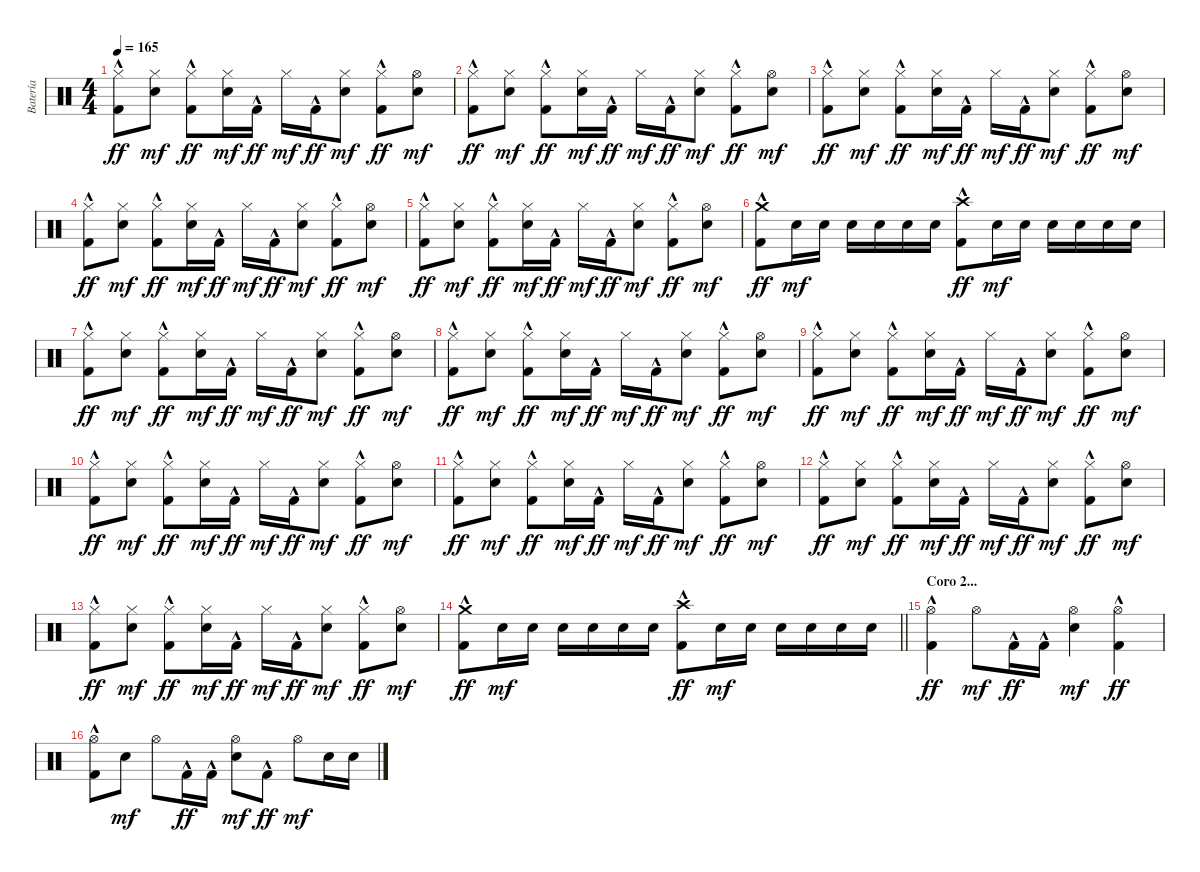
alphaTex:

\track ("Batería" "Batería") {instrument percussion}
\staff {score}
\articulation defaults
\ts (4 4)
\tempo 165
\clef neutral
\ks c
("Hi-Hat (closed)" "Kick (hit) 2"{hac}).8{dy ff} ("Hi-Hat (closed)" "Snare (hit) 2").8{dy mf} ("Hi-Hat (closed)" "Kick (hit) 2"{hac}).8{dy ff} ("Hi-Hat (closed)" "Snare (hit) 2").16{dy mf} "Kick (hit) 2"{hac}.16{dy ff} "Hi-Hat (closed)".16{dy mf} "Kick (hit) 2"{hac}.16{dy ff} ("Hi-Hat (closed)" "Snare (hit) 2").8{dy mf} ("Hi-Hat (closed)" "Kick (hit) 2"{hac}).8{dy ff} ("Hi-Hat (open)" "Snare (hit) 2").8{dy mf} |
("Hi-Hat (closed)" "Kick (hit) 2"{hac}).8{dy ff} ("Hi-Hat (closed)" "Snare (hit) 2").8{dy mf} ("Hi-Hat (closed)" "Kick (hit) 2"{hac}).8{dy ff} ("Hi-Hat (closed)" "Snare (hit) 2").16{dy mf} "Kick (hit) 2"{hac}.16{dy ff} "Hi-Hat (closed)".16{dy mf} "Kick (hit) 2"{hac}.16{dy ff} ("Hi-Hat (closed)" "Snare (hit) 2").8{dy mf} ("Hi-Hat (closed)" "Kick (hit) 2"{hac}).8{dy ff} ("Hi-Hat (open)" "Snare (hit) 2").8{dy mf} |
("Hi-Hat (closed)" "Kick (hit) 2"{hac}).8{dy ff} ("Hi-Hat (closed)" "Snare (hit) 2").8{dy mf} ("Hi-Hat (closed)" "Kick (hit) 2"{hac}).8{dy ff} ("Hi-Hat (closed)" "Snare (hit) 2").16{dy mf} "Kick (hit) 2"{hac}.16{dy ff} "Hi-Hat (closed)".16{dy mf} "Kick (hit) 2"{hac}.16{dy ff} ("Hi-Hat (closed)" "Snare (hit) 2").8{dy mf} ("Hi-Hat (closed)" "Kick (hit) 2"{hac}).8{dy ff} ("Hi-Hat (open)" "Snare (hit) 2").8{dy mf} |
("Hi-Hat (closed)" "Kick (hit) 2"{hac}).8{dy ff} ("Hi-Hat (closed)" "Snare (hit) 2").8{dy mf} ("Hi-Hat (closed)" "Kick (hit) 2"{hac}).8{dy ff} ("Hi-Hat (closed)" "Snare (hit) 2").16{dy mf} "Kick (hit) 2"{hac}.16{dy ff} "Hi-Hat (closed)".16{dy mf} "Kick (hit) 2"{hac}.16{dy ff} ("Hi-Hat (closed)" "Snare (hit) 2").8{dy mf} ("Hi-Hat (closed)" "Kick (hit) 2"{hac}).8{dy ff} ("Hi-Hat (open)" "Snare (hit) 2").8{dy mf} |
("Hi-Hat (closed)" "Kick (hit) 2"{hac}).8{dy ff} ("Hi-Hat (closed)" "Snare (hit) 2").8{dy mf} ("Hi-Hat (closed)" "Kick (hit) 2"{hac}).8{dy ff} ("Hi-Hat (closed)" "Snare (hit) 2").16{dy mf} "Kick (hit) 2"{hac}.16{dy ff} "Hi-Hat (closed)".16{dy mf} "Kick (hit) 2"{hac}.16{dy ff} ("Hi-Hat (closed)" "Snare (hit) 2").8{dy mf} ("Hi-Hat (closed)" "Kick (hit) 2"{hac}).8{dy ff} ("Hi-Hat (open)" "Snare (hit) 2").8{dy mf} |
("Crash medium (hit)" "Kick (hit) 2"{hac}).8{dy ff} "Snare (hit) 2".16{dy mf} "Snare (hit) 2".16 "Snare (hit) 2".16 "Snare (hit) 2".16 "Snare (hit) 2".16 "Snare (hit) 2".16 ("Crash high (hit)" "Kick (hit) 2"{hac}).8{dy ff} "Snare (hit) 2".16{dy mf} "Snare (hit) 2".16 "Snare (hit) 2".16 "Snare (hit) 2".16 "Snare (hit) 2".16 "Snare (hit) 2".16 |
("Hi-Hat (closed)" "Kick (hit) 2"{hac}).8{dy ff} ("Hi-Hat (closed)" "Snare (hit) 2").8{dy mf} ("Hi-Hat (closed)" "Kick (hit) 2"{hac}).8{dy ff} ("Hi-Hat (closed)" "Snare (hit) 2").16{dy mf} "Kick (hit) 2"{hac}.16{dy ff} "Hi-Hat (closed)".16{dy mf} "Kick (hit) 2"{hac}.16{dy ff} ("Hi-Hat (closed)" "Snare (hit) 2").8{dy mf} ("Hi-Hat (closed)" "Kick (hit) 2"{hac}).8{dy ff} ("Hi-Hat (open)" "Snare (hit) 2").8{dy mf} |
("Hi-Hat (closed)" "Kick (hit) 2"{hac}).8{dy ff} ("Hi-Hat (closed)" "Snare (hit) 2").8{dy mf} ("Hi-Hat (closed)" "Kick (hit) 2"{hac}).8{dy ff} ("Hi-Hat (closed)" "Snare (hit) 2").16{dy mf} "Kick (hit) 2"{hac}.16{dy ff} "Hi-Hat (closed)".16{dy mf} "Kick (hit) 2"{hac}.16{dy ff} ("Hi-Hat (closed)" "Snare (hit) 2").8{dy mf} ("Hi-Hat (closed)" "Kick (hit) 2"{hac}).8{dy ff} ("Hi-Hat (open)" "Snare (hit) 2").8{dy mf} |
("Hi-Hat (closed)" "Kick (hit) 2"{hac}).8{dy ff} ("Hi-Hat (closed)" "Snare (hit) 2").8{dy mf} ("Hi-Hat (closed)" "Kick (hit) 2"{hac}).8{dy ff} ("Hi-Hat (closed)" "Snare (hit) 2").16{dy mf} "Kick (hit) 2"{hac}.16{dy ff} "Hi-Hat (closed)".16{dy mf} "Kick (hit) 2"{hac}.16{dy ff} ("Hi-Hat (closed)" "Snare (hit) 2").8{dy mf} ("Hi-Hat (closed)" "Kick (hit) 2"{hac}).8{dy ff} ("Hi-Hat (open)" "Snare (hit) 2").8{dy mf} |
("Hi-Hat (closed)" "Kick (hit) 2"{hac}).8{dy ff} ("Hi-Hat (closed)" "Snare (hit) 2").8{dy mf} ("Hi-Hat (closed)" "Kick (hit) 2"{hac}).8{dy ff} ("Hi-Hat (closed)" "Snare (hit) 2").16{dy mf} "Kick (hit) 2"{hac}.16{dy ff} "Hi-Hat (closed)".16{dy mf} "Kick (hit) 2"{hac}.16{dy ff} ("Hi-Hat (closed)" "Snare (hit) 2").8{dy mf} ("Hi-Hat (closed)" "Kick (hit) 2"{hac}).8{dy ff} ("Hi-Hat (open)" "Snare (hit) 2").8{dy mf} |
("Hi-Hat (closed)" "Kick (hit) 2"{hac}).8{dy ff} ("Hi-Hat (closed)" "Snare (hit) 2").8{dy mf} ("Hi-Hat (closed)" "Kick (hit) 2"{hac}).8{dy ff} ("Hi-Hat (closed)" "Snare (hit) 2").16{dy mf} "Kick (hit) 2"{hac}.16{dy ff} "Hi-Hat (closed)".16{dy mf} "Kick (hit) 2"{hac}.16{dy ff} ("Hi-Hat (closed)" "Snare (hit) 2").8{dy mf} ("Hi-Hat (closed)" "Kick (hit) 2"{hac}).8{dy ff} ("Hi-Hat (open)" "Snare (hit) 2").8{dy mf} |
("Hi-Hat (closed)" "Kick (hit) 2"{hac}).8{dy ff} ("Hi-Hat (closed)" "Snare (hit) 2").8{dy mf} ("Hi-Hat (closed)" "Kick (hit) 2"{hac}).8{dy ff} ("Hi-Hat (closed)" "Snare (hit) 2").16{dy mf} "Kick (hit) 2"{hac}.16{dy ff} "Hi-Hat (closed)".16{dy mf} "Kick (hit) 2"{hac}.16{dy ff} ("Hi-Hat (closed)" "Snare (hit) 2").8{dy mf} ("Hi-Hat (closed)" "Kick (hit) 2"{hac}).8{dy ff} ("Hi-Hat (open)" "Snare (hit) 2").8{dy mf} |
("Hi-Hat (closed)" "Kick (hit) 2"{hac}).8{dy ff} ("Hi-Hat (closed)" "Snare (hit) 2").8{dy mf} ("Hi-Hat (closed)" "Kick (hit) 2"{hac}).8{dy ff} ("Hi-Hat (closed)" "Snare (hit) 2").16{dy mf} "Kick (hit) 2"{hac}.16{dy ff} "Hi-Hat (closed)".16{dy mf} "Kick (hit) 2"{hac}.16{dy ff} ("Hi-Hat (closed)" "Snare (hit) 2").8{dy mf} ("Hi-Hat (closed)" "Kick (hit) 2"{hac}).8{dy ff} ("Hi-Hat (open)" "Snare (hit) 2").8{dy mf} |
\barLineRight lightlight
("Crash medium (hit)" "Kick (hit) 2"{hac}).8{dy ff} "Snare (hit) 2".16{dy mf} "Snare (hit) 2".16 "Snare (hit) 2".16 "Snare (hit) 2".16 "Snare (hit) 2".16 "Snare (hit) 2".16 ("Crash high (hit)" "Kick (hit) 2"{hac}).8{dy ff} "Snare (hit) 2".16{dy mf} "Snare (hit) 2".16 "Snare (hit) 2".16 "Snare (hit) 2".16 "Snare (hit) 2".16 "Snare (hit) 2".16 |
\section ("" "Coro 2...")
("Hi-Hat (open)" "Kick (hit) 2"{hac}).4{dy ff} "Hi-Hat (open)".8{dy mf} "Kick (hit) 2"{hac}.16{dy ff} "Kick (hit) 2"{hac}.16 ("Hi-Hat (open)" "Snare (hit) 2").4{dy mf} ("Hi-Hat (open)" "Kick (hit) 2"{hac}).4{dy ff} |
("Hi-Hat (open)" "Kick (hit) 2"{hac}).8 "Snare (hit) 2".8{dy mf} "Hi-Hat (open)".8 "Kick (hit) 2"{hac}.16{dy ff} "Kick (hit) 2"{hac}.16 ("Hi-Hat (open)" "Snare (hit) 2").8{dy mf} "Kick (hit) 2"{hac}.8{dy ff} "Hi-Hat (open)".8{dy mf} "Snare (hit) 2".16 "Snare (hit) 2".16
